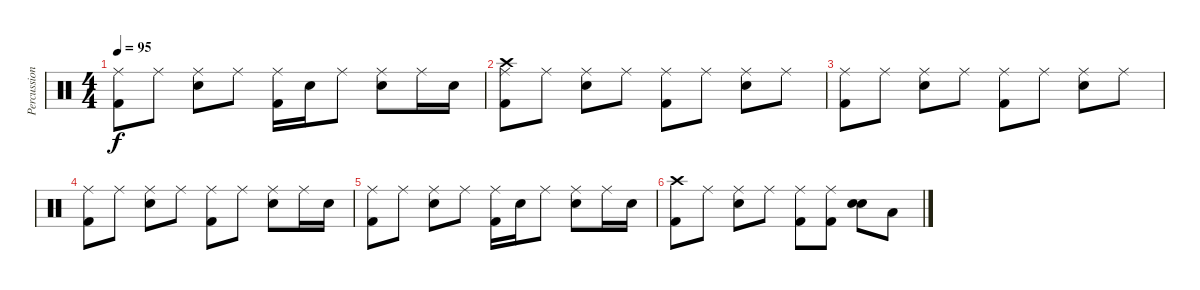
\track ("Percussion" "Percussion") {instrument percussion}
\staff {score}
\articulation defaults
\ts (4 4)
\tempo 95
\clef neutral
\ks c
("Ride (middle)" "Kick (hit) 2").8{dy f} "Ride (middle)".8 ("Ride (middle)" "Electric Snare (hit)").8 "Ride (middle)".8 ("Ride (middle)" "Kick (hit) 2").16 "Electric Snare (hit)".16 "Ride (middle)".8 ("Ride (middle)" "Electric Snare (hit)").8 "Ride (middle)".16 "Electric Snare (hit)".16 |
("Crash high (hit)" "Ride (middle)" "Kick (hit) 2").8 "Ride (middle)".8 ("Ride (middle)" "Electric Snare (hit)").8 "Ride (middle)".8 ("Ride (middle)" "Kick (hit) 2").8 "Ride (middle)".8 ("Ride (middle)" "Electric Snare (hit)").8 "Ride (middle)".8 |
("Ride (middle)" "Kick (hit) 2").8 "Ride (middle)".8 ("Ride (middle)" "Electric Snare (hit)").8 "Ride (middle)".8 ("Ride (middle)" "Kick (hit) 2").8 "Ride (middle)".8 ("Ride (middle)" "Electric Snare (hit)").8 "Ride (middle)".8 |
("Ride (middle)" "Kick (hit) 2").8 "Ride (middle)".8 ("Ride (middle)" "Electric Snare (hit)").8 "Ride (middle)".8 ("Ride (middle)" "Kick (hit) 2").8 "Ride (middle)".8 ("Ride (middle)" "Electric Snare (hit)").8 "Ride (middle)".16 "Electric Snare (hit)".16 |
("Ride (middle)" "Kick (hit) 2").8 "Ride (middle)".8 ("Ride (middle)" "Electric Snare (hit)").8 "Ride (middle)".8 ("Ride (middle)" "Kick (hit) 2").16 "Electric Snare (hit)".16 "Ride (middle)".8 ("Ride (middle)" "Electric Snare (hit)").8 "Ride (middle)".16 "Electric Snare (hit)".16 |
("Crash high (hit)" "Kick (hit) 2").8 "Ride (middle)".8 ("Ride (middle)" "Snare (hit) 2").8 "Ride (middle)".8 ("Ride (middle)" "Kick (hit) 2").8 ("Ride (middle)" "Kick (hit) 2").8 ("Snare (hit) 2" "Snare (hit) 2").8{bd 120} "Low Floor Tom (hit)".8
